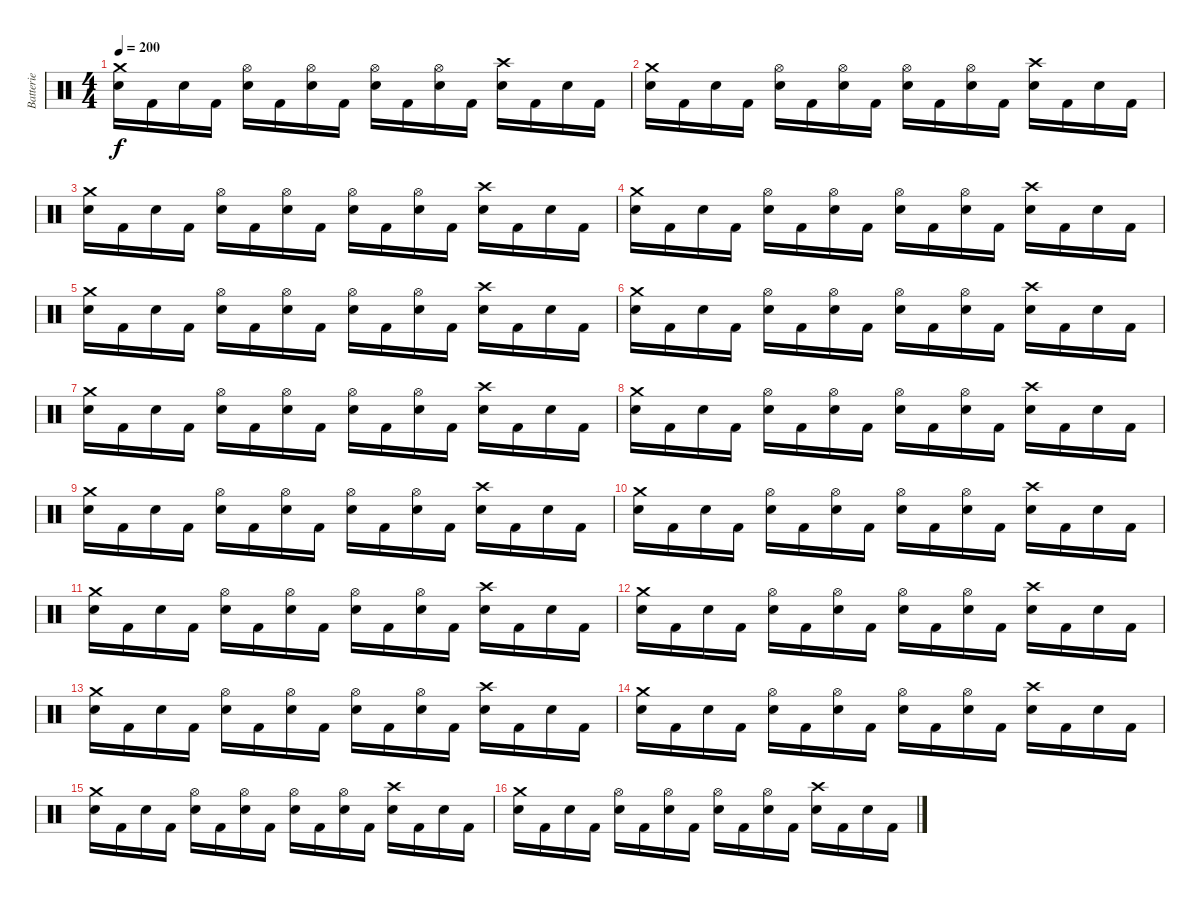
\track ("Batterie" "Batterie") {instrument percussion}
\staff {score}
\articulation defaults
\ts (4 4)
\tempo 200
\clef neutral
\ks c
("Snare (hit) 2" "Crash medium (hit)").16{dy f} "Kick (hit) 2".16 "Snare (hit) 2".16 "Kick (hit) 2".16 ("Snare (hit) 2" "Hi-Hat (open)").16 "Kick (hit) 2".16 ("Snare (hit) 2" "Hi-Hat (open)").16 "Kick (hit) 2".16 ("Snare (hit) 2" "Hi-Hat (open)").16 "Kick (hit) 2".16 ("Snare (hit) 2" "Hi-Hat (open)").16 "Kick (hit) 2".16 ("Snare (hit) 2" "Crash high (hit)").16 "Kick (hit) 2".16 "Snare (hit) 2".16 "Kick (hit) 2".16 |
("Snare (hit) 2" "Crash medium (hit)").16 "Kick (hit) 2".16 "Snare (hit) 2".16 "Kick (hit) 2".16 ("Snare (hit) 2" "Hi-Hat (open)").16 "Kick (hit) 2".16 ("Snare (hit) 2" "Hi-Hat (open)").16 "Kick (hit) 2".16 ("Snare (hit) 2" "Hi-Hat (open)").16 "Kick (hit) 2".16 ("Snare (hit) 2" "Hi-Hat (open)").16 "Kick (hit) 2".16 ("Snare (hit) 2" "Crash high (hit)").16 "Kick (hit) 2".16 "Snare (hit) 2".16 "Kick (hit) 2".16 |
("Snare (hit) 2" "Crash medium (hit)").16 "Kick (hit) 2".16 "Snare (hit) 2".16 "Kick (hit) 2".16 ("Snare (hit) 2" "Hi-Hat (open)").16 "Kick (hit) 2".16 ("Snare (hit) 2" "Hi-Hat (open)").16 "Kick (hit) 2".16 ("Snare (hit) 2" "Hi-Hat (open)").16 "Kick (hit) 2".16 ("Snare (hit) 2" "Hi-Hat (open)").16 "Kick (hit) 2".16 ("Snare (hit) 2" "Crash high (hit)").16 "Kick (hit) 2".16 "Snare (hit) 2".16 "Kick (hit) 2".16 |
("Snare (hit) 2" "Crash medium (hit)").16 "Kick (hit) 2".16 "Snare (hit) 2".16 "Kick (hit) 2".16 ("Snare (hit) 2" "Hi-Hat (open)").16 "Kick (hit) 2".16 ("Snare (hit) 2" "Hi-Hat (open)").16 "Kick (hit) 2".16 ("Snare (hit) 2" "Hi-Hat (open)").16 "Kick (hit) 2".16 ("Snare (hit) 2" "Hi-Hat (open)").16 "Kick (hit) 2".16 ("Snare (hit) 2" "Crash high (hit)").16 "Kick (hit) 2".16 "Snare (hit) 2".16 "Kick (hit) 2".16 |
("Snare (hit) 2" "Crash medium (hit)").16 "Kick (hit) 2".16 "Snare (hit) 2".16 "Kick (hit) 2".16 ("Snare (hit) 2" "Hi-Hat (open)").16 "Kick (hit) 2".16 ("Snare (hit) 2" "Hi-Hat (open)").16 "Kick (hit) 2".16 ("Snare (hit) 2" "Hi-Hat (open)").16 "Kick (hit) 2".16 ("Snare (hit) 2" "Hi-Hat (open)").16 "Kick (hit) 2".16 ("Snare (hit) 2" "Crash high (hit)").16 "Kick (hit) 2".16 "Snare (hit) 2".16 "Kick (hit) 2".16 |
("Snare (hit) 2" "Crash medium (hit)").16 "Kick (hit) 2".16 "Snare (hit) 2".16 "Kick (hit) 2".16 ("Snare (hit) 2" "Hi-Hat (open)").16 "Kick (hit) 2".16 ("Snare (hit) 2" "Hi-Hat (open)").16 "Kick (hit) 2".16 ("Snare (hit) 2" "Hi-Hat (open)").16 "Kick (hit) 2".16 ("Snare (hit) 2" "Hi-Hat (open)").16 "Kick (hit) 2".16 ("Snare (hit) 2" "Crash high (hit)").16 "Kick (hit) 2".16 "Snare (hit) 2".16 "Kick (hit) 2".16 |
("Snare (hit) 2" "Crash medium (hit)").16 "Kick (hit) 2".16 "Snare (hit) 2".16 "Kick (hit) 2".16 ("Snare (hit) 2" "Hi-Hat (open)").16 "Kick (hit) 2".16 ("Snare (hit) 2" "Hi-Hat (open)").16 "Kick (hit) 2".16 ("Snare (hit) 2" "Hi-Hat (open)").16 "Kick (hit) 2".16 ("Snare (hit) 2" "Hi-Hat (open)").16 "Kick (hit) 2".16 ("Snare (hit) 2" "Crash high (hit)").16 "Kick (hit) 2".16 "Snare (hit) 2".16 "Kick (hit) 2".16 |
("Snare (hit) 2" "Crash medium (hit)").16 "Kick (hit) 2".16 "Snare (hit) 2".16 "Kick (hit) 2".16 ("Snare (hit) 2" "Hi-Hat (open)").16 "Kick (hit) 2".16 ("Snare (hit) 2" "Hi-Hat (open)").16 "Kick (hit) 2".16 ("Snare (hit) 2" "Hi-Hat (open)").16 "Kick (hit) 2".16 ("Snare (hit) 2" "Hi-Hat (open)").16 "Kick (hit) 2".16 ("Snare (hit) 2" "Crash high (hit)").16 "Kick (hit) 2".16 "Snare (hit) 2".16 "Kick (hit) 2".16 |
("Snare (hit) 2" "Crash medium (hit)").16 "Kick (hit) 2".16 "Snare (hit) 2".16 "Kick (hit) 2".16 ("Snare (hit) 2" "Hi-Hat (open)").16 "Kick (hit) 2".16 ("Snare (hit) 2" "Hi-Hat (open)").16 "Kick (hit) 2".16 ("Snare (hit) 2" "Hi-Hat (open)").16 "Kick (hit) 2".16 ("Snare (hit) 2" "Hi-Hat (open)").16 "Kick (hit) 2".16 ("Snare (hit) 2" "Crash high (hit)").16 "Kick (hit) 2".16 "Snare (hit) 2".16 "Kick (hit) 2".16 |
("Snare (hit) 2" "Crash medium (hit)").16 "Kick (hit) 2".16 "Snare (hit) 2".16 "Kick (hit) 2".16 ("Snare (hit) 2" "Hi-Hat (open)").16 "Kick (hit) 2".16 ("Snare (hit) 2" "Hi-Hat (open)").16 "Kick (hit) 2".16 ("Snare (hit) 2" "Hi-Hat (open)").16 "Kick (hit) 2".16 ("Snare (hit) 2" "Hi-Hat (open)").16 "Kick (hit) 2".16 ("Snare (hit) 2" "Crash high (hit)").16 "Kick (hit) 2".16 "Snare (hit) 2".16 "Kick (hit) 2".16 |
("Snare (hit) 2" "Crash medium (hit)").16 "Kick (hit) 2".16 "Snare (hit) 2".16 "Kick (hit) 2".16 ("Snare (hit) 2" "Hi-Hat (open)").16 "Kick (hit) 2".16 ("Snare (hit) 2" "Hi-Hat (open)").16 "Kick (hit) 2".16 ("Snare (hit) 2" "Hi-Hat (open)").16 "Kick (hit) 2".16 ("Snare (hit) 2" "Hi-Hat (open)").16 "Kick (hit) 2".16 ("Snare (hit) 2" "Crash high (hit)").16 "Kick (hit) 2".16 "Snare (hit) 2".16 "Kick (hit) 2".16 |
("Snare (hit) 2" "Crash medium (hit)").16 "Kick (hit) 2".16 "Snare (hit) 2".16 "Kick (hit) 2".16 ("Snare (hit) 2" "Hi-Hat (open)").16 "Kick (hit) 2".16 ("Snare (hit) 2" "Hi-Hat (open)").16 "Kick (hit) 2".16 ("Snare (hit) 2" "Hi-Hat (open)").16 "Kick (hit) 2".16 ("Snare (hit) 2" "Hi-Hat (open)").16 "Kick (hit) 2".16 ("Snare (hit) 2" "Crash high (hit)").16 "Kick (hit) 2".16 "Snare (hit) 2".16 "Kick (hit) 2".16 |
("Snare (hit) 2" "Crash medium (hit)").16 "Kick (hit) 2".16 "Snare (hit) 2".16 "Kick (hit) 2".16 ("Snare (hit) 2" "Hi-Hat (open)").16 "Kick (hit) 2".16 ("Snare (hit) 2" "Hi-Hat (open)").16 "Kick (hit) 2".16 ("Snare (hit) 2" "Hi-Hat (open)").16 "Kick (hit) 2".16 ("Snare (hit) 2" "Hi-Hat (open)").16 "Kick (hit) 2".16 ("Snare (hit) 2" "Crash high (hit)").16 "Kick (hit) 2".16 "Snare (hit) 2".16 "Kick (hit) 2".16 |
("Snare (hit) 2" "Crash medium (hit)").16 "Kick (hit) 2".16 "Snare (hit) 2".16 "Kick (hit) 2".16 ("Snare (hit) 2" "Hi-Hat (open)").16 "Kick (hit) 2".16 ("Snare (hit) 2" "Hi-Hat (open)").16 "Kick (hit) 2".16 ("Snare (hit) 2" "Hi-Hat (open)").16 "Kick (hit) 2".16 ("Snare (hit) 2" "Hi-Hat (open)").16 "Kick (hit) 2".16 ("Snare (hit) 2" "Crash high (hit)").16 "Kick (hit) 2".16 "Snare (hit) 2".16 "Kick (hit) 2".16 |
("Snare (hit) 2" "Crash medium (hit)").16 "Kick (hit) 2".16 "Snare (hit) 2".16 "Kick (hit) 2".16 ("Snare (hit) 2" "Hi-Hat (open)").16 "Kick (hit) 2".16 ("Snare (hit) 2" "Hi-Hat (open)").16 "Kick (hit) 2".16 ("Snare (hit) 2" "Hi-Hat (open)").16 "Kick (hit) 2".16 ("Snare (hit) 2" "Hi-Hat (open)").16 "Kick (hit) 2".16 ("Snare (hit) 2" "Crash high (hit)").16 "Kick (hit) 2".16 "Snare (hit) 2".16 "Kick (hit) 2".16 |
("Snare (hit) 2" "Crash medium (hit)").16 "Kick (hit) 2".16 "Snare (hit) 2".16 "Kick (hit) 2".16 ("Snare (hit) 2" "Hi-Hat (open)").16 "Kick (hit) 2".16 ("Snare (hit) 2" "Hi-Hat (open)").16 "Kick (hit) 2".16 ("Snare (hit) 2" "Hi-Hat (open)").16 "Kick (hit) 2".16 ("Snare (hit) 2" "Hi-Hat (open)").16 "Kick (hit) 2".16 ("Snare (hit) 2" "Crash high (hit)").16 "Kick (hit) 2".16 "Snare (hit) 2".16 "Kick (hit) 2".16
